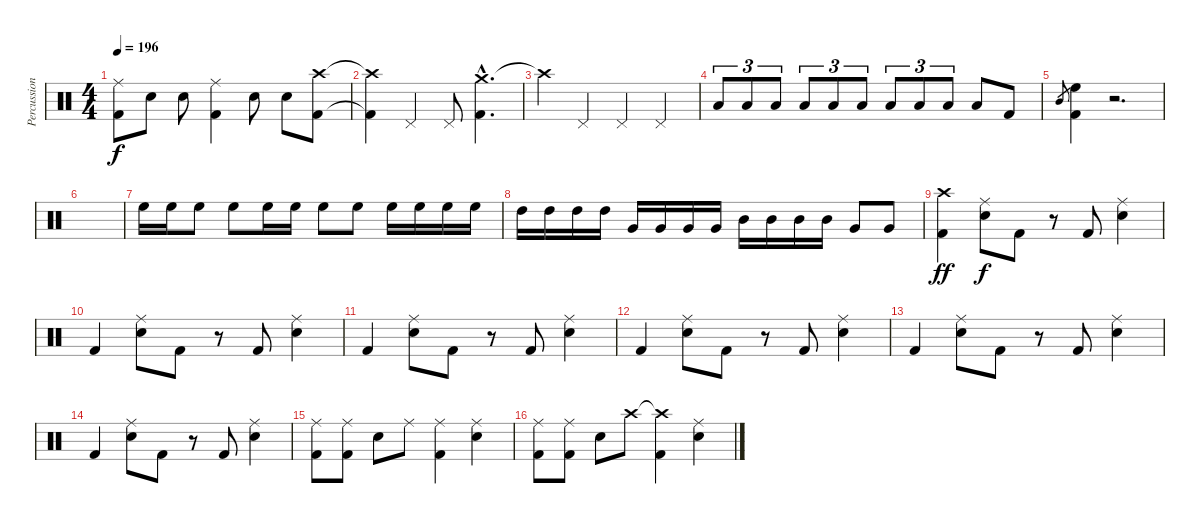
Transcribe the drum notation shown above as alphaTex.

\track ("Percussion" "Percussion") {instrument percussion}
\staff {score}
\articulation defaults
\ts (4 4)
\tempo 196
\clef neutral
\ks c
("Ride (middle)"{t} "Kick (hit) 2"{t}).8{dy f} "Snare (hit) 2".8 "Snare (hit) 2".8 ("Ride (middle)" "Kick (hit) 2").4 "Snare (hit) 2".8 "Snare (hit) 2".8 ("Crash high (hit)" "Kick (hit) 2").8 |
("Crash high (hit)"{t} "Kick (hit) 2"{t}).4 "Pedal Hi-Hat (hit)".4 "Pedal Hi-Hat (hit)".8 ("Crash medium (hit)"{hac} "Kick (hit) 2"{hac}).4{d} |
"Crash high (hit)"{t}.4 "Pedal Hi-Hat (hit)".4 "Pedal Hi-Hat (hit)".4 "Pedal Hi-Hat (hit)".4 |
"Low Tom (hit)".8{tu (3 2)} "Low Tom (hit)".8{tu (3 2)} "Low Tom (hit)".8{tu (3 2)} "Low Tom (hit)".8{tu (3 2)} "Low Tom (hit)".8{tu (3 2)} "Low Tom (hit)".8{tu (3 2)} "Low Tom (hit)".8{tu (3 2)} "Low Tom (hit)".8{tu (3 2)} "Low Tom (hit)".8{tu (3 2)} "Low Tom (hit)".8 "Kick (hit) 2".8 |
"Mid Tom (hit)".8{gr} ("High Floor Tom (hit)" "Kick (hit) 2").4 r.2{d} |
|
"High Floor Tom (hit)".16 "High Floor Tom (hit)".16 "High Floor Tom (hit)".8 "High Floor Tom (hit)".8 "High Floor Tom (hit)".16 "High Floor Tom (hit)".16 "High Floor Tom (hit)".8 "High Floor Tom (hit)".8 "High Floor Tom (hit)".16 "High Floor Tom (hit)".16 "High Floor Tom (hit)".16 "High Floor Tom (hit)".16 |
"High Tom (hit)".16 "High Tom (hit)".16 "High Tom (hit)".16 "High Tom (hit)".16 "Very Low Tom (hit)".16 "Very Low Tom (hit)".16 "Very Low Tom (hit)".16 "Very Low Tom (hit)".16 "Mid Tom (hit)".16 "Mid Tom (hit)".16 "Mid Tom (hit)".16 "Mid Tom (hit)".16 "Very Low Tom (hit)".8 "Very Low Tom (hit)".8 |
("Crash high (hit)" "Kick (hit) 2").4{dy ff} ("Ride (middle)" "Snare (hit) 2").8{dy f} "Kick (hit) 2".8 r.8 "Kick (hit) 2".8 ("Ride (middle)" "Snare (hit) 2").4 |
"Kick (hit) 2".4 ("Ride (middle)" "Snare (hit) 2").8 "Kick (hit) 2".8 r.8 "Kick (hit) 2".8 ("Ride (middle)" "Snare (hit) 2").4 |
"Kick (hit) 2".4 ("Ride (middle)" "Snare (hit) 2").8 "Kick (hit) 2".8 r.8 "Kick (hit) 2".8 ("Ride (middle)" "Snare (hit) 2").4 |
"Kick (hit) 2".4 ("Ride (middle)" "Snare (hit) 2").8 "Kick (hit) 2".8 r.8 "Kick (hit) 2".8 ("Ride (middle)" "Snare (hit) 2").4 |
"Kick (hit) 2".4 ("Ride (middle)" "Snare (hit) 2").8 "Kick (hit) 2".8 r.8 "Kick (hit) 2".8 ("Ride (middle)" "Snare (hit) 2").4 |
"Kick (hit) 2".4 ("Ride (middle)" "Snare (hit) 2").8 "Kick (hit) 2".8 r.8 "Kick (hit) 2".8 ("Ride (middle)" "Snare (hit) 2").4 |
("Ride (middle)" "Kick (hit) 2").8 ("Ride (middle)" "Kick (hit) 2").8 "Snare (hit) 2".8 "Ride (middle)".8 ("Ride (middle)" "Kick (hit) 2").4 ("Ride (middle)" "Snare (hit) 2").4 |
("Ride (middle)" "Kick (hit) 2").8 ("Ride (middle)" "Kick (hit) 2").8 "Snare (hit) 2".8 "Crash high (hit)".8 ("Crash high (hit)"{t} "Kick (hit) 2").4 ("Ride (middle)" "Snare (hit) 2").4
